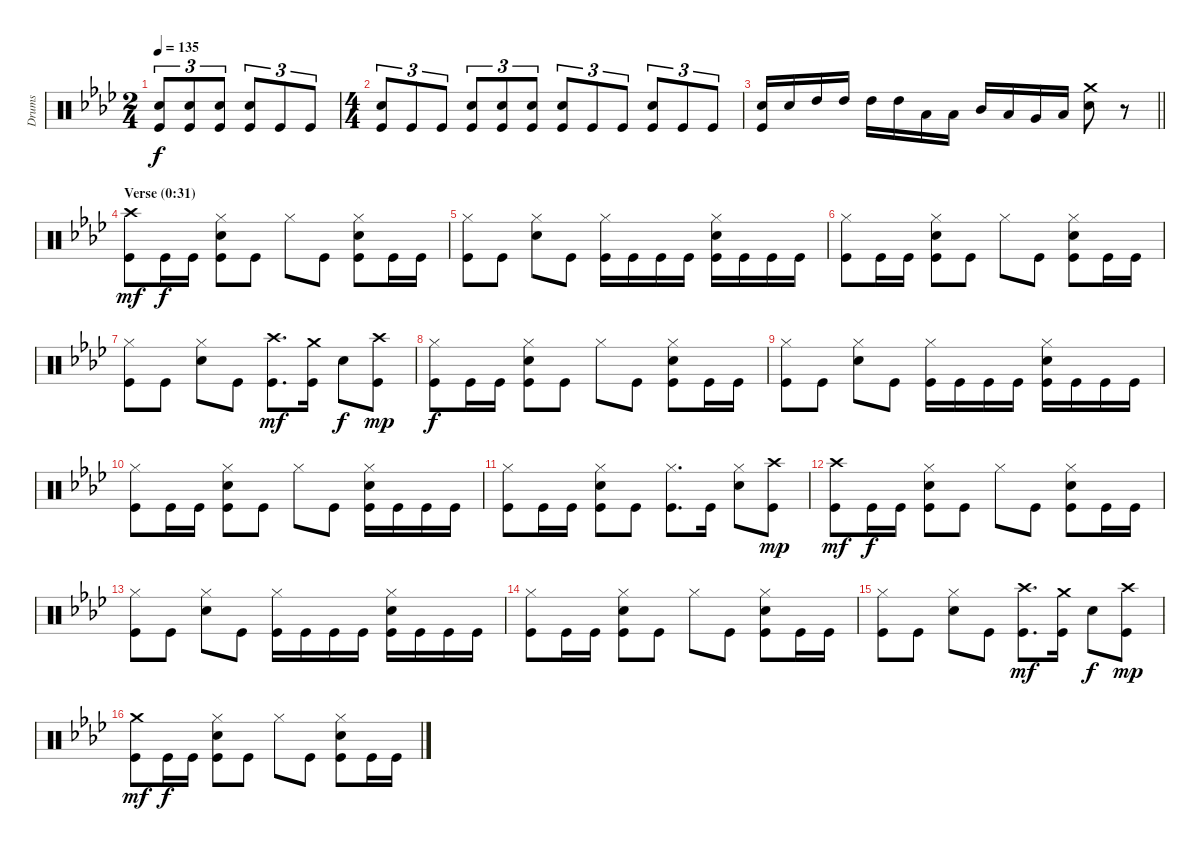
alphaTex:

\track ("Drums" "Drums") {instrument percussion}
\staff {score}
\articulation defaults
\ts (2 4)
\tempo 135
\clef neutral
\ks fminor
("Snare (hit) 2" "Kick (hit)").8{tu (3 2) dy f} ("Snare (hit) 2" "Kick (hit)").8{tu (3 2)} ("Snare (hit) 2" "Kick (hit)").8{tu (3 2)} ("Snare (hit) 2" "Kick (hit)").8{tu (3 2)} "Kick (hit)".8{tu (3 2)} "Kick (hit)".8{tu (3 2)} |
\ts (4 4)
("Snare (hit) 2" "Kick (hit)").8{tu (3 2)} "Kick (hit)".8{tu (3 2)} "Kick (hit)".8{tu (3 2)} ("Snare (hit) 2" "Kick (hit)").8{tu (3 2)} ("Snare (hit) 2" "Kick (hit)").8{tu (3 2)} ("Snare (hit) 2" "Kick (hit)").8{tu (3 2)} ("Snare (hit) 2" "Kick (hit)").8{tu (3 2)} "Kick (hit)".8{tu (3 2)} "Kick (hit)".8{tu (3 2)} ("Snare (hit) 2" "Kick (hit)").8{tu (3 2)} "Kick (hit)".8{tu (3 2)} "Kick (hit)".8{tu (3 2)} |
\barLineRight lightlight
("Snare (hit) 2" "Kick (hit)").16 "Snare (hit) 2".16 "High Tom (hit)".16 "High Tom (hit)".16 "High Tom (hit)".16 "High Tom (hit)".16 "Low Tom (hit)".16 "Low Tom (hit)".16 "Mid Tom (hit)".16 "Low Tom (hit)".16 "Very Low Tom (hit)".16 "Low Floor Tom (hit)".16 ("Crash medium (hit)" "Snare (hit) 2").8 r.8 |
\section ("" "Verse (0:31)")
("Crash high (hit)" "Kick (hit)").8{dy mf} "Kick (hit)".16{dy f} "Kick (hit)".16 ("Hi-Hat (closed)" "Snare (hit) 2" "Kick (hit)").8 "Kick (hit)".8 "Hi-Hat (closed)".8 "Kick (hit)".8 ("Hi-Hat (closed)" "Snare (hit) 2" "Kick (hit)").8 "Kick (hit)".16 "Kick (hit)".16 |
("Hi-Hat (closed)" "Kick (hit)").8 "Kick (hit)".8 ("Hi-Hat (closed)" "Snare (hit) 2").8 "Kick (hit)".8 ("Hi-Hat (closed)" "Kick (hit)").16 "Kick (hit)".16 "Kick (hit)".16 "Kick (hit)".16 ("Hi-Hat (closed)" "Snare (hit) 2" "Kick (hit)").16 "Kick (hit)".16 "Kick (hit)".16 "Kick (hit)".16 |
("Hi-Hat (closed)" "Kick (hit)").8 "Kick (hit)".16 "Kick (hit)".16 ("Hi-Hat (closed)" "Snare (hit) 2" "Kick (hit)").8 "Kick (hit)".8 "Hi-Hat (closed)".8 "Kick (hit)".8 ("Hi-Hat (closed)" "Snare (hit) 2" "Kick (hit)").8 "Kick (hit)".16 "Kick (hit)".16 |
("Hi-Hat (closed)" "Kick (hit)").8 "Kick (hit)".8 ("Hi-Hat (closed)" "Snare (hit) 2").8 "Kick (hit)".8 ("Crash high (hit)" "Kick (hit)").8{d dy mf} ("Crash medium (hit)" "Kick (hit)").16 "Snare (hit) 2".8{dy f} ("Crash high (hit)" "Kick (hit)").8{dy mp} |
("Hi-Hat (closed)" "Kick (hit)").8{dy f} "Kick (hit)".16 "Kick (hit)".16 ("Hi-Hat (closed)" "Snare (hit) 2" "Kick (hit)").8 "Kick (hit)".8 "Hi-Hat (closed)".8 "Kick (hit)".8 ("Hi-Hat (closed)" "Snare (hit) 2" "Kick (hit)").8 "Kick (hit)".16 "Kick (hit)".16 |
("Hi-Hat (closed)" "Kick (hit)").8 "Kick (hit)".8 ("Hi-Hat (closed)" "Snare (hit) 2").8 "Kick (hit)".8 ("Hi-Hat (closed)" "Kick (hit)").16 "Kick (hit)".16 "Kick (hit)".16 "Kick (hit)".16 ("Hi-Hat (closed)" "Snare (hit) 2" "Kick (hit)").16 "Kick (hit)".16 "Kick (hit)".16 "Kick (hit)".16 |
("Hi-Hat (closed)" "Kick (hit)").8 "Kick (hit)".16 "Kick (hit)".16 ("Hi-Hat (closed)" "Snare (hit) 2" "Kick (hit)").8 "Kick (hit)".8 "Hi-Hat (closed)".8 "Kick (hit)".8 ("Hi-Hat (closed)" "Snare (hit) 2" "Kick (hit)").16 "Kick (hit)".16 "Kick (hit)".16 "Kick (hit)".16 |
("Hi-Hat (closed)" "Kick (hit)").8 "Kick (hit)".16 "Kick (hit)".16 ("Hi-Hat (closed)" "Snare (hit) 2" "Kick (hit)").8 "Kick (hit)".8 ("Hi-Hat (closed)" "Kick (hit)").8{d} "Kick (hit)".16 ("Hi-Hat (closed)" "Snare (hit) 2").8 ("Crash high (hit)" "Kick (hit)").8{dy mp} |
("Crash high (hit)" "Kick (hit)").8{dy mf} "Kick (hit)".16{dy f} "Kick (hit)".16 ("Hi-Hat (closed)" "Snare (hit) 2" "Kick (hit)").8 "Kick (hit)".8 "Hi-Hat (closed)".8 "Kick (hit)".8 ("Hi-Hat (closed)" "Snare (hit) 2" "Kick (hit)").8 "Kick (hit)".16 "Kick (hit)".16 |
("Hi-Hat (closed)" "Kick (hit)").8 "Kick (hit)".8 ("Hi-Hat (closed)" "Snare (hit) 2").8 "Kick (hit)".8 ("Hi-Hat (closed)" "Kick (hit)").16 "Kick (hit)".16 "Kick (hit)".16 "Kick (hit)".16 ("Hi-Hat (closed)" "Snare (hit) 2" "Kick (hit)").16 "Kick (hit)".16 "Kick (hit)".16 "Kick (hit)".16 |
("Hi-Hat (closed)" "Kick (hit)").8 "Kick (hit)".16 "Kick (hit)".16 ("Hi-Hat (closed)" "Snare (hit) 2" "Kick (hit)").8 "Kick (hit)".8 "Hi-Hat (closed)".8 "Kick (hit)".8 ("Hi-Hat (closed)" "Snare (hit) 2" "Kick (hit)").8 "Kick (hit)".16 "Kick (hit)".16 |
("Hi-Hat (closed)" "Kick (hit)").8 "Kick (hit)".8 ("Hi-Hat (closed)" "Snare (hit) 2").8 "Kick (hit)".8 ("Crash high (hit)" "Kick (hit)").8{d dy mf} ("Crash medium (hit)" "Kick (hit)").16 "Snare (hit) 2".8{dy f} ("Crash high (hit)" "Kick (hit)").8{dy mp} |
("Crash medium (hit)" "Kick (hit)").8{dy mf} "Kick (hit)".16{dy f} "Kick (hit)".16 ("Hi-Hat (closed)" "Snare (hit) 2" "Kick (hit)").8 "Kick (hit)".8 "Hi-Hat (closed)".8 "Kick (hit)".8 ("Hi-Hat (closed)" "Snare (hit) 2" "Kick (hit)").8 "Kick (hit)".16 "Kick (hit)".16
